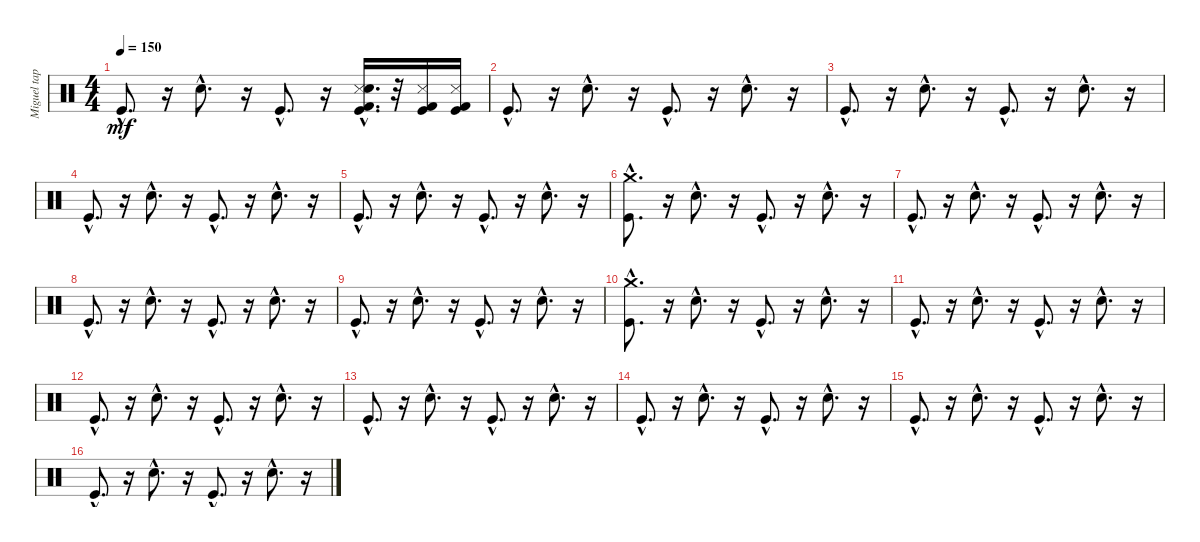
\track ("Miguel tapia" "Miguel tap") {instrument percussion}
\staff {score}
\articulation defaults
\ts (4 4)
\tempo 150
\clef neutral
\ks c "Kick (hit)"{hac}.8{d dy mf}
r.16 "Electric Snare (hit)"{hac}.8{d} r.16 "Kick (hit)"{hac}.8{d} r.16 ("Metronome (hit)"{hac} "Electric Snare (hit)"{hac} "Kick (hit) 2"{hac} "Kick (hit)"{hac}).16{d} r.32 ("Metronome (hit)" "Kick (hit)" "Kick (hit) 2").16 ("Kick (hit) 2" "Kick (hit)" "Metronome (hit)").16 |
"Kick (hit)"{hac}.8{d} r.16 "Electric Snare (hit)"{hac}.8{d} r.16 "Kick (hit)"{hac}.8{d} r.16 "Electric Snare (hit)"{hac}.8{d} r.16 |
"Kick (hit)"{hac}.8{d} r.16 "Electric Snare (hit)"{hac}.8{d} r.16 "Kick (hit)"{hac}.8{d} r.16 "Electric Snare (hit)"{hac}.8{d} r.16 |
"Kick (hit)"{hac}.8{d} r.16 "Electric Snare (hit)"{hac}.8{d} r.16 "Kick (hit)"{hac}.8{d} r.16 "Electric Snare (hit)"{hac}.8{d} r.16 |
"Kick (hit)"{hac}.8{d} r.16 "Electric Snare (hit)"{hac}.8{d} r.16 "Kick (hit)"{hac}.8{d} r.16 "Electric Snare (hit)"{hac}.8{d} r.16 |
("Kick (hit)"{hac} "Crash medium (hit)"{hac}).8{d} r.16 "Electric Snare (hit)"{hac}.8{d} r.16 "Kick (hit)"{hac}.8{d} r.16 "Electric Snare (hit)"{hac}.8{d} r.16 |
"Kick (hit)"{hac}.8{d} r.16 "Electric Snare (hit)"{hac}.8{d} r.16 "Kick (hit)"{hac}.8{d} r.16 "Electric Snare (hit)"{hac}.8{d} r.16 |
"Kick (hit)"{hac}.8{d} r.16 "Electric Snare (hit)"{hac}.8{d} r.16 "Kick (hit)"{hac}.8{d} r.16 "Electric Snare (hit)"{hac}.8{d} r.16 |
"Kick (hit)"{hac}.8{d} r.16 "Electric Snare (hit)"{hac}.8{d} r.16 "Kick (hit)"{hac}.8{d} r.16 "Electric Snare (hit)"{hac}.8{d} r.16 |
("Crash medium (hit)"{hac} "Kick (hit)"{hac}).8{d} r.16 "Electric Snare (hit)"{hac}.8{d} r.16 "Kick (hit)"{hac}.8{d} r.16 "Electric Snare (hit)"{hac}.8{d} r.16 |
"Kick (hit)"{hac}.8{d} r.16 "Electric Snare (hit)"{hac}.8{d} r.16 "Kick (hit)"{hac}.8{d} r.16 "Electric Snare (hit)"{hac}.8{d} r.16 |
"Kick (hit)"{hac}.8{d} r.16 "Electric Snare (hit)"{hac}.8{d} r.16 "Kick (hit)"{hac}.8{d} r.16 "Electric Snare (hit)"{hac}.8{d} r.16 |
"Kick (hit)"{hac}.8{d} r.16 "Electric Snare (hit)"{hac}.8{d} r.16 "Kick (hit)"{hac}.8{d} r.16 "Electric Snare (hit)"{hac}.8{d} r.16 |
"Kick (hit)"{hac}.8{d} r.16 "Electric Snare (hit)"{hac}.8{d} r.16 "Kick (hit)"{hac}.8{d} r.16 "Electric Snare (hit)"{hac}.8{d} r.16 |
"Kick (hit)"{hac}.8{d} r.16 "Electric Snare (hit)"{hac}.8{d} r.16 "Kick (hit)"{hac}.8{d} r.16 "Electric Snare (hit)"{hac}.8{d} r.16 |
"Kick (hit)"{hac}.8{d} r.16 "Electric Snare (hit)"{hac}.8{d} r.16 "Kick (hit)"{hac}.8{d} r.16 "Electric Snare (hit)"{hac}.8{d} r.16
